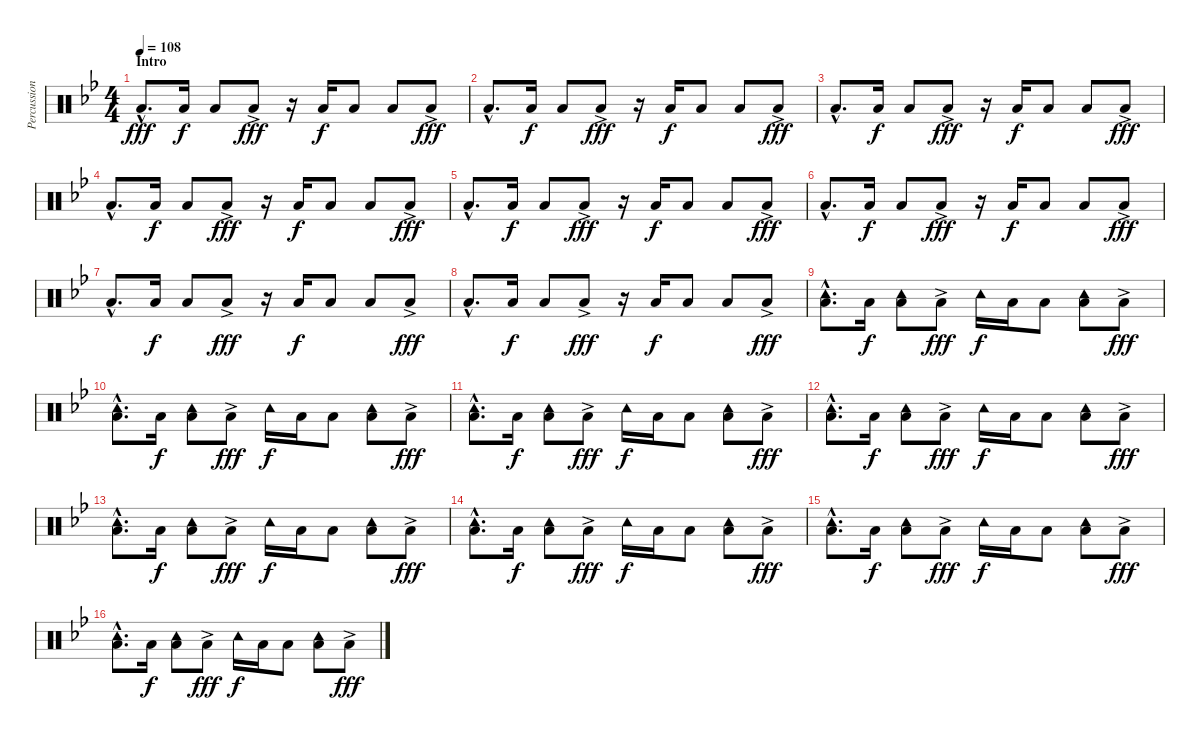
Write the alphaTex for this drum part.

\track ("Percussion" "Percussion") {instrument percussion}
\staff {score}
\articulation defaults
\ts (4 4)
\section ("" "Intro")
\tempo 108
\clef neutral
\ks bb "Low Tom (hit)"{hac}.8{d dy fff} "Low Tom (hit)".16{dy f} "Low Tom (hit)".8 "Low Tom (hit)"{ac}.8{dy fff}
r.16 "Low Tom (hit)".16{dy f} "Low Tom (hit)".8 "Low Tom (hit)".8 "Low Tom (hit)"{ac}.8{dy fff} |
"Low Tom (hit)"{hac}.8{d} "Low Tom (hit)".16{dy f} "Low Tom (hit)".8 "Low Tom (hit)"{ac}.8{dy fff} r.16 "Low Tom (hit)".16{dy f} "Low Tom (hit)".8 "Low Tom (hit)".8 "Low Tom (hit)"{ac}.8{dy fff} |
"Low Tom (hit)"{hac}.8{d} "Low Tom (hit)".16{dy f} "Low Tom (hit)".8 "Low Tom (hit)"{ac}.8{dy fff} r.16 "Low Tom (hit)".16{dy f} "Low Tom (hit)".8 "Low Tom (hit)".8 "Low Tom (hit)"{ac}.8{dy fff} |
"Low Tom (hit)"{hac}.8{d} "Low Tom (hit)".16{dy f} "Low Tom (hit)".8 "Low Tom (hit)"{ac}.8{dy fff} r.16 "Low Tom (hit)".16{dy f} "Low Tom (hit)".8 "Low Tom (hit)".8 "Low Tom (hit)"{ac}.8{dy fff} |
"Low Tom (hit)"{hac}.8{d} "Low Tom (hit)".16{dy f} "Low Tom (hit)".8 "Low Tom (hit)"{ac}.8{dy fff} r.16 "Low Tom (hit)".16{dy f} "Low Tom (hit)".8 "Low Tom (hit)".8 "Low Tom (hit)"{ac}.8{dy fff} |
"Low Tom (hit)"{hac}.8{d} "Low Tom (hit)".16{dy f} "Low Tom (hit)".8 "Low Tom (hit)"{ac}.8{dy fff} r.16 "Low Tom (hit)".16{dy f} "Low Tom (hit)".8 "Low Tom (hit)".8 "Low Tom (hit)"{ac}.8{dy fff} |
"Low Tom (hit)"{hac}.8{d} "Low Tom (hit)".16{dy f} "Low Tom (hit)".8 "Low Tom (hit)"{ac}.8{dy fff} r.16 "Low Tom (hit)".16{dy f} "Low Tom (hit)".8 "Low Tom (hit)".8 "Low Tom (hit)"{ac}.8{dy fff} |
"Low Tom (hit)"{hac}.8{d} "Low Tom (hit)".16{dy f} "Low Tom (hit)".8 "Low Tom (hit)"{ac}.8{dy fff} r.16 "Low Tom (hit)".16{dy f} "Low Tom (hit)".8 "Low Tom (hit)".8 "Low Tom (hit)"{ac}.8{dy fff} |
("Tambourine (hit)"{hac} "Low Tom (hit)"{hac}).8{d} "Low Tom (hit)".16{dy f} ("Tambourine (hit)" "Low Tom (hit)").8 "Low Tom (hit)"{ac}.8{dy fff} "Tambourine (hit)".16{dy f} "Low Tom (hit)".16 "Low Tom (hit)".8 ("Tambourine (hit)" "Low Tom (hit)").8 "Low Tom (hit)"{ac}.8{dy fff} |
("Tambourine (hit)"{hac} "Low Tom (hit)"{hac}).8{d} "Low Tom (hit)".16{dy f} ("Tambourine (hit)" "Low Tom (hit)").8 "Low Tom (hit)"{ac}.8{dy fff} "Tambourine (hit)".16{dy f} "Low Tom (hit)".16 "Low Tom (hit)".8 ("Tambourine (hit)" "Low Tom (hit)").8 "Low Tom (hit)"{ac}.8{dy fff} |
("Tambourine (hit)"{hac} "Low Tom (hit)"{hac}).8{d} "Low Tom (hit)".16{dy f} ("Tambourine (hit)" "Low Tom (hit)").8 "Low Tom (hit)"{ac}.8{dy fff} "Tambourine (hit)".16{dy f} "Low Tom (hit)".16 "Low Tom (hit)".8 ("Tambourine (hit)" "Low Tom (hit)").8 "Low Tom (hit)"{ac}.8{dy fff} |
("Tambourine (hit)"{hac} "Low Tom (hit)"{hac}).8{d} "Low Tom (hit)".16{dy f} ("Tambourine (hit)" "Low Tom (hit)").8 "Low Tom (hit)"{ac}.8{dy fff} "Tambourine (hit)".16{dy f} "Low Tom (hit)".16 "Low Tom (hit)".8 ("Tambourine (hit)" "Low Tom (hit)").8 "Low Tom (hit)"{ac}.8{dy fff} |
("Tambourine (hit)"{hac} "Low Tom (hit)"{hac}).8{d} "Low Tom (hit)".16{dy f} ("Tambourine (hit)" "Low Tom (hit)").8 "Low Tom (hit)"{ac}.8{dy fff} "Tambourine (hit)".16{dy f} "Low Tom (hit)".16 "Low Tom (hit)".8 ("Tambourine (hit)" "Low Tom (hit)").8 "Low Tom (hit)"{ac}.8{dy fff} |
("Tambourine (hit)"{hac} "Low Tom (hit)"{hac}).8{d} "Low Tom (hit)".16{dy f} ("Tambourine (hit)" "Low Tom (hit)").8 "Low Tom (hit)"{ac}.8{dy fff} "Tambourine (hit)".16{dy f} "Low Tom (hit)".16 "Low Tom (hit)".8 ("Tambourine (hit)" "Low Tom (hit)").8 "Low Tom (hit)"{ac}.8{dy fff} |
("Tambourine (hit)"{hac} "Low Tom (hit)"{hac}).8{d} "Low Tom (hit)".16{dy f} ("Tambourine (hit)" "Low Tom (hit)").8 "Low Tom (hit)"{ac}.8{dy fff} "Tambourine (hit)".16{dy f} "Low Tom (hit)".16 "Low Tom (hit)".8 ("Tambourine (hit)" "Low Tom (hit)").8 "Low Tom (hit)"{ac}.8{dy fff} |
("Tambourine (hit)"{hac} "Low Tom (hit)"{hac}).8{d} "Low Tom (hit)".16{dy f} ("Tambourine (hit)" "Low Tom (hit)").8 "Low Tom (hit)"{ac}.8{dy fff} "Tambourine (hit)".16{dy f} "Low Tom (hit)".16 "Low Tom (hit)".8 ("Tambourine (hit)" "Low Tom (hit)").8 "Low Tom (hit)"{ac}.8{dy fff}
